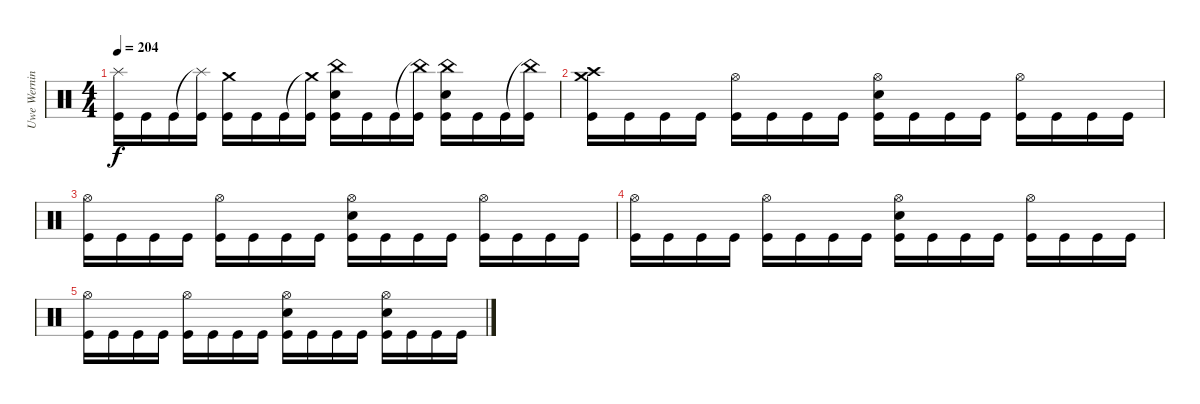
\track ("Uwe Werning" "Uwe Wernin") {instrument percussion}
\staff {score}
\articulation defaults
\ts (4 4)
\tempo 204
\clef neutral
\ks c
("Splash (hit)" "Kick (hit)").16{dy f} "Kick (hit)".16 "Kick (hit)".16 ("Splash (hit)"{t} "Kick (hit)").16 ("Crash medium (hit)" "Kick (hit)").16 "Kick (hit)".16 "Kick (hit)".16 ("Crash medium (hit)"{t} "Kick (hit)").16 ("China (hit)" "Snare (hit) 2" "Kick (hit)").16 "Kick (hit)".16 "Kick (hit)".16 ("China (hit)"{t} "Kick (hit)").16 ("China (hit)" "Snare (hit) 2" "Kick (hit)").16 "Kick (hit)".16 "Kick (hit)".16 ("China (hit)"{t} "Kick (hit)").16 |
("Crash high (hit)" "Crash medium (hit)" "Kick (hit)").16 "Kick (hit)".16 "Kick (hit)".16 "Kick (hit)".16 ("Hi-Hat (open)" "Kick (hit)").16 "Kick (hit)".16 "Kick (hit)".16 "Kick (hit)".16 ("Hi-Hat (open)" "Snare (hit) 2" "Kick (hit)").16 "Kick (hit)".16 "Kick (hit)".16 "Kick (hit)".16 ("Hi-Hat (open)" "Kick (hit)").16 "Kick (hit)".16 "Kick (hit)".16 "Kick (hit)".16 |
("Hi-Hat (open)" "Kick (hit)").16 "Kick (hit)".16 "Kick (hit)".16 "Kick (hit)".16 ("Hi-Hat (open)" "Kick (hit)").16 "Kick (hit)".16 "Kick (hit)".16 "Kick (hit)".16 ("Hi-Hat (open)" "Snare (hit) 2" "Kick (hit)").16 "Kick (hit)".16 "Kick (hit)".16 "Kick (hit)".16 ("Hi-Hat (open)" "Kick (hit)").16 "Kick (hit)".16 "Kick (hit)".16 "Kick (hit)".16 |
("Hi-Hat (open)" "Kick (hit)").16 "Kick (hit)".16 "Kick (hit)".16 "Kick (hit)".16 ("Hi-Hat (open)" "Kick (hit)").16 "Kick (hit)".16 "Kick (hit)".16 "Kick (hit)".16 ("Hi-Hat (open)" "Snare (hit) 2" "Kick (hit)").16 "Kick (hit)".16 "Kick (hit)".16 "Kick (hit)".16 ("Hi-Hat (open)" "Kick (hit)").16 "Kick (hit)".16 "Kick (hit)".16 "Kick (hit)".16 |
("Hi-Hat (open)" "Kick (hit)").16 "Kick (hit)".16 "Kick (hit)".16 "Kick (hit)".16 ("Hi-Hat (open)" "Kick (hit)").16 "Kick (hit)".16 "Kick (hit)".16 "Kick (hit)".16 ("Hi-Hat (open)" "Snare (hit) 2" "Kick (hit)").16 "Kick (hit)".16 "Kick (hit)".16 "Kick (hit)".16 ("Hi-Hat (open)" "Snare (hit) 2" "Kick (hit)").16 "Kick (hit)".16 "Kick (hit)".16 "Kick (hit)".16
